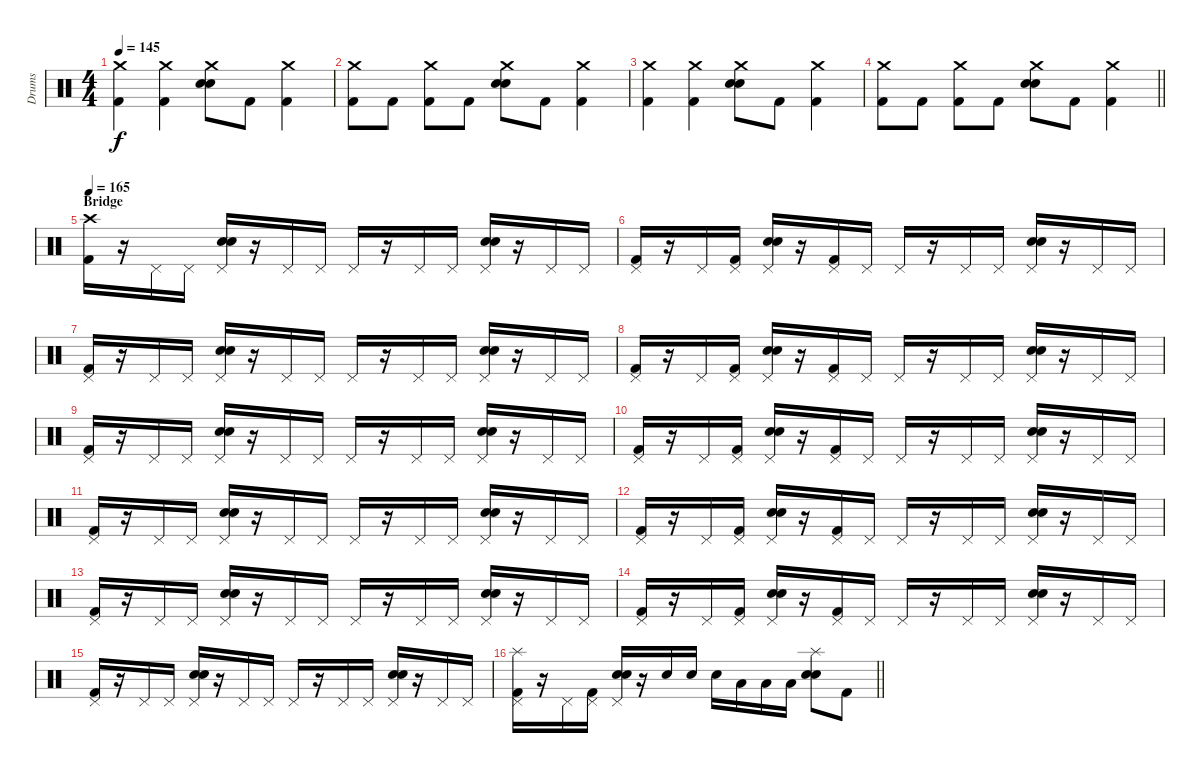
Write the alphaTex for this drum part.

\track ("Drums" "Drums") {instrument percussion}
\staff {score}
\articulation defaults
\ts (4 4)
\tempo 145
\clef neutral
\ks c
("Crash medium (hit)" "Kick (hit) 2").4{dy f} ("Crash medium (hit)" "Kick (hit) 2").4 ("Crash medium (hit)" "Electric Snare (hit)" "Snare (hit) 2").8 "Kick (hit) 2".8 ("Crash medium (hit)" "Kick (hit) 2").4 |
("Crash medium (hit)" "Kick (hit) 2").8 "Kick (hit) 2".8 ("Crash medium (hit)" "Kick (hit) 2").8 "Kick (hit) 2".8 ("Crash medium (hit)" "Electric Snare (hit)" "Snare (hit) 2").8 "Kick (hit) 2".8 ("Crash medium (hit)" "Kick (hit) 2").4 |
("Crash medium (hit)" "Kick (hit) 2").4 ("Crash medium (hit)" "Kick (hit) 2").4 ("Crash medium (hit)" "Electric Snare (hit)" "Snare (hit) 2").8 "Kick (hit) 2".8 ("Crash medium (hit)" "Kick (hit) 2").4 |
\barLineRight lightlight
("Crash medium (hit)" "Kick (hit) 2").8 "Kick (hit) 2".8 ("Crash medium (hit)" "Kick (hit) 2").8 "Kick (hit) 2".8 ("Crash medium (hit)" "Electric Snare (hit)" "Snare (hit) 2").8 "Kick (hit) 2".8 ("Crash medium (hit)" "Kick (hit) 2").4 |
\section ("" "Bridge")
\tempo 165
("Crash high (hit)" "Kick (hit) 2").16 r.16 "Pedal Hi-Hat (hit)".16 "Pedal Hi-Hat (hit)".16 ("Pedal Hi-Hat (hit)" "Electric Snare (hit)" "Snare (hit) 2").16 r.16 "Pedal Hi-Hat (hit)".16 "Pedal Hi-Hat (hit)".16 "Pedal Hi-Hat (hit)".16 r.16 "Pedal Hi-Hat (hit)".16 "Pedal Hi-Hat (hit)".16 ("Pedal Hi-Hat (hit)" "Electric Snare (hit)" "Snare (hit) 2").16 r.16 "Pedal Hi-Hat (hit)".16 "Pedal Hi-Hat (hit)".16 |
("Pedal Hi-Hat (hit)" "Kick (hit) 2").16 r.16 "Pedal Hi-Hat (hit)".16 ("Pedal Hi-Hat (hit)" "Kick (hit) 2").16 ("Pedal Hi-Hat (hit)" "Electric Snare (hit)" "Snare (hit) 2").16 r.16 ("Pedal Hi-Hat (hit)" "Kick (hit) 2").16 "Pedal Hi-Hat (hit)".16 "Pedal Hi-Hat (hit)".16 r.16 "Pedal Hi-Hat (hit)".16 "Pedal Hi-Hat (hit)".16 ("Pedal Hi-Hat (hit)" "Electric Snare (hit)" "Snare (hit) 2").16 r.16 "Pedal Hi-Hat (hit)".16 "Pedal Hi-Hat (hit)".16 |
("Pedal Hi-Hat (hit)" "Kick (hit) 2").16 r.16 "Pedal Hi-Hat (hit)".16 "Pedal Hi-Hat (hit)".16 ("Pedal Hi-Hat (hit)" "Electric Snare (hit)" "Snare (hit) 2").16 r.16 "Pedal Hi-Hat (hit)".16 "Pedal Hi-Hat (hit)".16 "Pedal Hi-Hat (hit)".16 r.16 "Pedal Hi-Hat (hit)".16 "Pedal Hi-Hat (hit)".16 ("Pedal Hi-Hat (hit)" "Electric Snare (hit)" "Snare (hit) 2").16 r.16 "Pedal Hi-Hat (hit)".16 "Pedal Hi-Hat (hit)".16 |
("Pedal Hi-Hat (hit)" "Kick (hit) 2").16 r.16 "Pedal Hi-Hat (hit)".16 ("Pedal Hi-Hat (hit)" "Kick (hit) 2").16 ("Pedal Hi-Hat (hit)" "Electric Snare (hit)" "Snare (hit) 2").16 r.16 ("Pedal Hi-Hat (hit)" "Kick (hit) 2").16 "Pedal Hi-Hat (hit)".16 "Pedal Hi-Hat (hit)".16 r.16 "Pedal Hi-Hat (hit)".16 "Pedal Hi-Hat (hit)".16 ("Pedal Hi-Hat (hit)" "Electric Snare (hit)" "Snare (hit) 2").16 r.16 "Pedal Hi-Hat (hit)".16 "Pedal Hi-Hat (hit)".16 |
("Pedal Hi-Hat (hit)" "Kick (hit) 2").16 r.16 "Pedal Hi-Hat (hit)".16 "Pedal Hi-Hat (hit)".16 ("Pedal Hi-Hat (hit)" "Electric Snare (hit)" "Snare (hit) 2").16 r.16 "Pedal Hi-Hat (hit)".16 "Pedal Hi-Hat (hit)".16 "Pedal Hi-Hat (hit)".16 r.16 "Pedal Hi-Hat (hit)".16 "Pedal Hi-Hat (hit)".16 ("Pedal Hi-Hat (hit)" "Electric Snare (hit)" "Snare (hit) 2").16 r.16 "Pedal Hi-Hat (hit)".16 "Pedal Hi-Hat (hit)".16 |
("Pedal Hi-Hat (hit)" "Kick (hit) 2").16 r.16 "Pedal Hi-Hat (hit)".16 ("Pedal Hi-Hat (hit)" "Kick (hit) 2").16 ("Pedal Hi-Hat (hit)" "Electric Snare (hit)" "Snare (hit) 2").16 r.16 ("Pedal Hi-Hat (hit)" "Kick (hit) 2").16 "Pedal Hi-Hat (hit)".16 "Pedal Hi-Hat (hit)".16 r.16 "Pedal Hi-Hat (hit)".16 "Pedal Hi-Hat (hit)".16 ("Pedal Hi-Hat (hit)" "Electric Snare (hit)" "Snare (hit) 2").16 r.16 "Pedal Hi-Hat (hit)".16 "Pedal Hi-Hat (hit)".16 |
("Pedal Hi-Hat (hit)" "Kick (hit) 2").16 r.16 "Pedal Hi-Hat (hit)".16 "Pedal Hi-Hat (hit)".16 ("Pedal Hi-Hat (hit)" "Electric Snare (hit)" "Snare (hit) 2").16 r.16 "Pedal Hi-Hat (hit)".16 "Pedal Hi-Hat (hit)".16 "Pedal Hi-Hat (hit)".16 r.16 "Pedal Hi-Hat (hit)".16 "Pedal Hi-Hat (hit)".16 ("Pedal Hi-Hat (hit)" "Electric Snare (hit)" "Snare (hit) 2").16 r.16 "Pedal Hi-Hat (hit)".16 "Pedal Hi-Hat (hit)".16 |
("Pedal Hi-Hat (hit)" "Kick (hit) 2").16 r.16 "Pedal Hi-Hat (hit)".16 ("Pedal Hi-Hat (hit)" "Kick (hit) 2").16 ("Pedal Hi-Hat (hit)" "Electric Snare (hit)" "Snare (hit) 2").16 r.16 ("Pedal Hi-Hat (hit)" "Kick (hit) 2").16 "Pedal Hi-Hat (hit)".16 "Pedal Hi-Hat (hit)".16 r.16 "Pedal Hi-Hat (hit)".16 "Pedal Hi-Hat (hit)".16 ("Pedal Hi-Hat (hit)" "Electric Snare (hit)" "Snare (hit) 2").16 r.16 "Pedal Hi-Hat (hit)".16 "Pedal Hi-Hat (hit)".16 |
("Pedal Hi-Hat (hit)" "Kick (hit) 2").16 r.16 "Pedal Hi-Hat (hit)".16 "Pedal Hi-Hat (hit)".16 ("Pedal Hi-Hat (hit)" "Electric Snare (hit)" "Snare (hit) 2").16 r.16 "Pedal Hi-Hat (hit)".16 "Pedal Hi-Hat (hit)".16 "Pedal Hi-Hat (hit)".16 r.16 "Pedal Hi-Hat (hit)".16 "Pedal Hi-Hat (hit)".16 ("Pedal Hi-Hat (hit)" "Electric Snare (hit)" "Snare (hit) 2").16 r.16 "Pedal Hi-Hat (hit)".16 "Pedal Hi-Hat (hit)".16 |
("Pedal Hi-Hat (hit)" "Kick (hit) 2").16 r.16 "Pedal Hi-Hat (hit)".16 ("Pedal Hi-Hat (hit)" "Kick (hit) 2").16 ("Pedal Hi-Hat (hit)" "Electric Snare (hit)" "Snare (hit) 2").16 r.16 ("Pedal Hi-Hat (hit)" "Kick (hit) 2").16 "Pedal Hi-Hat (hit)".16 "Pedal Hi-Hat (hit)".16 r.16 "Pedal Hi-Hat (hit)".16 "Pedal Hi-Hat (hit)".16 ("Pedal Hi-Hat (hit)" "Electric Snare (hit)" "Snare (hit) 2").16 r.16 "Pedal Hi-Hat (hit)".16 "Pedal Hi-Hat (hit)".16 |
("Pedal Hi-Hat (hit)" "Kick (hit) 2").16 r.16 "Pedal Hi-Hat (hit)".16 "Pedal Hi-Hat (hit)".16 ("Pedal Hi-Hat (hit)" "Electric Snare (hit)" "Snare (hit) 2").16 r.16 "Pedal Hi-Hat (hit)".16 "Pedal Hi-Hat (hit)".16 "Pedal Hi-Hat (hit)".16 r.16 "Pedal Hi-Hat (hit)".16 "Pedal Hi-Hat (hit)".16 ("Pedal Hi-Hat (hit)" "Electric Snare (hit)" "Snare (hit) 2").16 r.16 "Pedal Hi-Hat (hit)".16 "Pedal Hi-Hat (hit)".16 |
\barLineRight lightlight
("Splash (hit)" "Pedal Hi-Hat (hit)" "Kick (hit) 2").16 r.16 "Pedal Hi-Hat (hit)".16 ("Pedal Hi-Hat (hit)" "Kick (hit) 2").16 ("Pedal Hi-Hat (hit)" "Electric Snare (hit)" "Snare (hit) 2").16 r.16 "Electric Snare (hit)".16 "Electric Snare (hit)".16 "Electric Snare (hit)".16 "Low Tom (hit)".16 "Low Tom (hit)".16 "Low Tom (hit)".16 ("Splash (hit)" "Electric Snare (hit)" "Snare (hit) 2").8 "Kick (hit) 2".8
